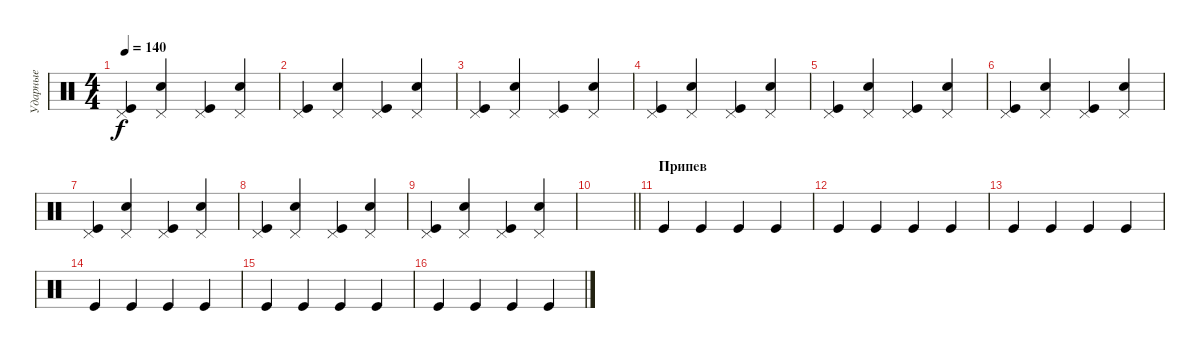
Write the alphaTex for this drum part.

\track ("Ударные" "Ударные") {instrument percussion}
\staff {score}
\articulation defaults
\ts (4 4)
\tempo 140
\clef neutral
\ks c
("Kick (hit)" "Pedal Hi-Hat (hit)").4{dy f} ("Electric Snare (hit)" "Pedal Hi-Hat (hit)").4 ("Kick (hit)" "Pedal Hi-Hat (hit)").4 ("Electric Snare (hit)" "Pedal Hi-Hat (hit)").4 |
("Kick (hit)" "Pedal Hi-Hat (hit)").4 ("Electric Snare (hit)" "Pedal Hi-Hat (hit)").4 ("Kick (hit)" "Pedal Hi-Hat (hit)").4 ("Electric Snare (hit)" "Pedal Hi-Hat (hit)").4 |
("Kick (hit)" "Pedal Hi-Hat (hit)").4 ("Electric Snare (hit)" "Pedal Hi-Hat (hit)").4 ("Kick (hit)" "Pedal Hi-Hat (hit)").4 ("Electric Snare (hit)" "Pedal Hi-Hat (hit)").4 |
("Kick (hit)" "Pedal Hi-Hat (hit)").4 ("Electric Snare (hit)" "Pedal Hi-Hat (hit)").4 ("Kick (hit)" "Pedal Hi-Hat (hit)").4 ("Electric Snare (hit)" "Pedal Hi-Hat (hit)").4 |
("Kick (hit)" "Pedal Hi-Hat (hit)").4 ("Electric Snare (hit)" "Pedal Hi-Hat (hit)").4 ("Kick (hit)" "Pedal Hi-Hat (hit)").4 ("Electric Snare (hit)" "Pedal Hi-Hat (hit)").4 |
("Kick (hit)" "Pedal Hi-Hat (hit)").4 ("Electric Snare (hit)" "Pedal Hi-Hat (hit)").4 ("Kick (hit)" "Pedal Hi-Hat (hit)").4 ("Electric Snare (hit)" "Pedal Hi-Hat (hit)").4 |
("Kick (hit)" "Pedal Hi-Hat (hit)").4 ("Electric Snare (hit)" "Pedal Hi-Hat (hit)").4 ("Kick (hit)" "Pedal Hi-Hat (hit)").4 ("Electric Snare (hit)" "Pedal Hi-Hat (hit)").4 |
("Kick (hit)" "Pedal Hi-Hat (hit)").4 ("Electric Snare (hit)" "Pedal Hi-Hat (hit)").4 ("Kick (hit)" "Pedal Hi-Hat (hit)").4 ("Electric Snare (hit)" "Pedal Hi-Hat (hit)").4 |
("Kick (hit)" "Pedal Hi-Hat (hit)").4 ("Electric Snare (hit)" "Pedal Hi-Hat (hit)").4 ("Kick (hit)" "Pedal Hi-Hat (hit)").4 ("Electric Snare (hit)" "Pedal Hi-Hat (hit)").4 |
\barLineRight lightlight
|
\section ("" "Припев")
"Kick (hit)".4 "Kick (hit)".4 "Kick (hit)".4 "Kick (hit)".4 |
"Kick (hit)".4 "Kick (hit)".4 "Kick (hit)".4 "Kick (hit)".4 |
"Kick (hit)".4 "Kick (hit)".4 "Kick (hit)".4 "Kick (hit)".4 |
"Kick (hit)".4 "Kick (hit)".4 "Kick (hit)".4 "Kick (hit)".4 |
"Kick (hit)".4 "Kick (hit)".4 "Kick (hit)".4 "Kick (hit)".4 |
"Kick (hit)".4 "Kick (hit)".4 "Kick (hit)".4 "Kick (hit)".4
